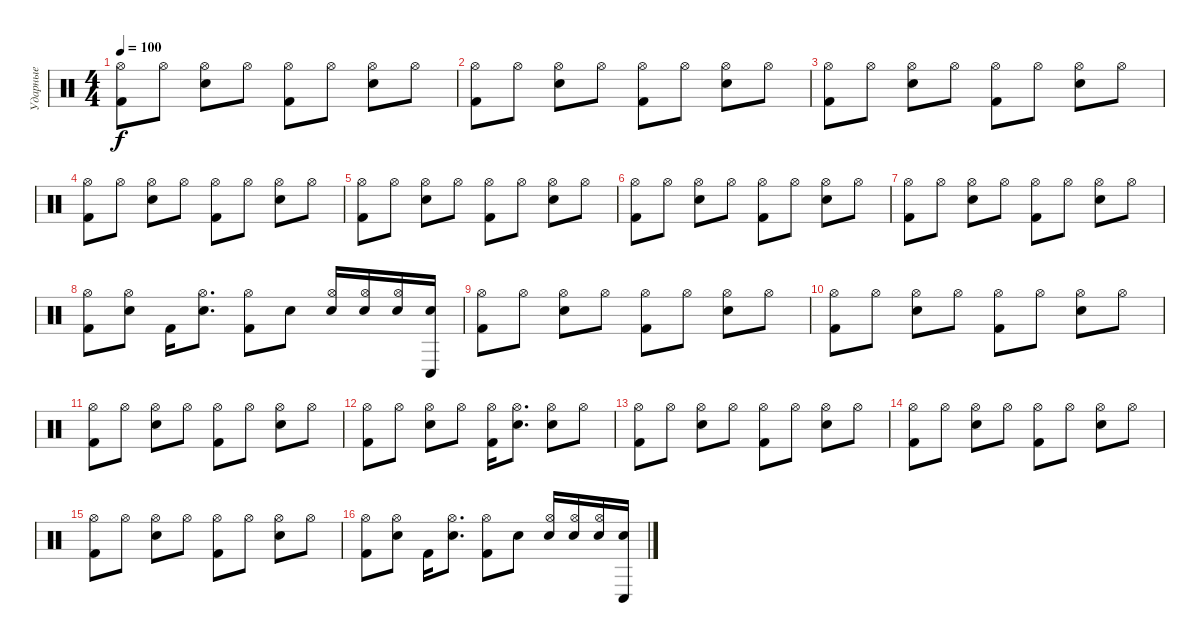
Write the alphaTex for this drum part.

\track ("Ударные" "Ударные") {instrument percussion}
\staff {score}
\articulation defaults
\ts (4 4)
\tempo 100
\clef neutral
\ks c
("Hi-Hat (open)" "Kick (hit) 2").8{dy f} "Hi-Hat (open)".8 ("Hi-Hat (open)" "Electric Snare (hit)").8 "Hi-Hat (open)".8 ("Hi-Hat (open)" "Kick (hit) 2").8 "Hi-Hat (open)".8 ("Hi-Hat (open)" "Electric Snare (hit)").8 "Hi-Hat (open)".8 |
("Hi-Hat (open)" "Kick (hit) 2").8 "Hi-Hat (open)".8 ("Hi-Hat (open)" "Electric Snare (hit)").8 "Hi-Hat (open)".8 ("Hi-Hat (open)" "Kick (hit) 2").8 "Hi-Hat (open)".8 ("Hi-Hat (open)" "Electric Snare (hit)").8 "Hi-Hat (open)".8 |
("Hi-Hat (open)" "Kick (hit) 2").8 "Hi-Hat (open)".8 ("Hi-Hat (open)" "Electric Snare (hit)").8 "Hi-Hat (open)".8 ("Hi-Hat (open)" "Kick (hit) 2").8 "Hi-Hat (open)".8 ("Hi-Hat (open)" "Electric Snare (hit)").8 "Hi-Hat (open)".8 |
("Hi-Hat (open)" "Kick (hit) 2").8 "Hi-Hat (open)".8 ("Hi-Hat (open)" "Electric Snare (hit)").8 "Hi-Hat (open)".8 ("Hi-Hat (open)" "Kick (hit) 2").8 "Hi-Hat (open)".8 ("Hi-Hat (open)" "Electric Snare (hit)").8 "Hi-Hat (open)".8 |
("Hi-Hat (open)" "Kick (hit) 2").8 "Hi-Hat (open)".8 ("Hi-Hat (open)" "Electric Snare (hit)").8 "Hi-Hat (open)".8 ("Hi-Hat (open)" "Kick (hit) 2").8 "Hi-Hat (open)".8 ("Hi-Hat (open)" "Electric Snare (hit)").8 "Hi-Hat (open)".8 |
("Hi-Hat (open)" "Kick (hit) 2").8 "Hi-Hat (open)".8 ("Hi-Hat (open)" "Electric Snare (hit)").8 "Hi-Hat (open)".8 ("Hi-Hat (open)" "Kick (hit) 2").8 "Hi-Hat (open)".8 ("Hi-Hat (open)" "Electric Snare (hit)").8 "Hi-Hat (open)".8 |
("Hi-Hat (open)" "Kick (hit) 2").8 "Hi-Hat (open)".8 ("Hi-Hat (open)" "Electric Snare (hit)").8 "Hi-Hat (open)".8 ("Hi-Hat (open)" "Kick (hit) 2").8 "Hi-Hat (open)".8 ("Hi-Hat (open)" "Electric Snare (hit)").8 "Hi-Hat (open)".8 |
("Hi-Hat (open)" "Kick (hit) 2").8 ("Hi-Hat (open)" "Electric Snare (hit)").8 "Kick (hit) 2".16 ("Hi-Hat (open)" "Electric Snare (hit)").8{d} ("Hi-Hat (open)" "Kick (hit) 2").8 "Electric Snare (hit)".8 ("Hi-Hat (open)" "Electric Snare (hit)").16 ("Hi-Hat (open)" "Electric Snare (hit)").16 ("Hi-Hat (open)" "Electric Snare (hit)").16 ("Conga low (hit)" "Electric Snare (hit)").16 |
("Hi-Hat (open)" "Kick (hit) 2").8 "Hi-Hat (open)".8 ("Hi-Hat (open)" "Electric Snare (hit)").8 "Hi-Hat (open)".8 ("Hi-Hat (open)" "Kick (hit) 2").8 "Hi-Hat (open)".8 ("Hi-Hat (open)" "Electric Snare (hit)").8 "Hi-Hat (open)".8 |
("Hi-Hat (open)" "Kick (hit) 2").8 "Hi-Hat (open)".8 ("Hi-Hat (open)" "Electric Snare (hit)").8 "Hi-Hat (open)".8 ("Hi-Hat (open)" "Kick (hit) 2").8 "Hi-Hat (open)".8 ("Hi-Hat (open)" "Electric Snare (hit)").8 "Hi-Hat (open)".8 |
("Hi-Hat (open)" "Kick (hit) 2").8 "Hi-Hat (open)".8 ("Hi-Hat (open)" "Electric Snare (hit)").8 "Hi-Hat (open)".8 ("Hi-Hat (open)" "Kick (hit) 2").8 "Hi-Hat (open)".8 ("Hi-Hat (open)" "Electric Snare (hit)").8 "Hi-Hat (open)".8 |
("Hi-Hat (open)" "Kick (hit) 2").8 "Hi-Hat (open)".8 ("Hi-Hat (open)" "Electric Snare (hit)").8 "Hi-Hat (open)".8 ("Hi-Hat (open)" "Kick (hit) 2").16 ("Hi-Hat (open)" "Electric Snare (hit)").8{d} ("Hi-Hat (open)" "Electric Snare (hit)").8 "Hi-Hat (open)".8 |
("Hi-Hat (open)" "Kick (hit) 2").8 "Hi-Hat (open)".8 ("Hi-Hat (open)" "Electric Snare (hit)").8 "Hi-Hat (open)".8 ("Hi-Hat (open)" "Kick (hit) 2").8 "Hi-Hat (open)".8 ("Hi-Hat (open)" "Electric Snare (hit)").8 "Hi-Hat (open)".8 |
("Hi-Hat (open)" "Kick (hit) 2").8 "Hi-Hat (open)".8 ("Hi-Hat (open)" "Electric Snare (hit)").8 "Hi-Hat (open)".8 ("Hi-Hat (open)" "Kick (hit) 2").8 "Hi-Hat (open)".8 ("Hi-Hat (open)" "Electric Snare (hit)").8 "Hi-Hat (open)".8 |
("Hi-Hat (open)" "Kick (hit) 2").8 "Hi-Hat (open)".8 ("Hi-Hat (open)" "Electric Snare (hit)").8 "Hi-Hat (open)".8 ("Hi-Hat (open)" "Kick (hit) 2").8 "Hi-Hat (open)".8 ("Hi-Hat (open)" "Electric Snare (hit)").8 "Hi-Hat (open)".8 |
("Hi-Hat (open)" "Kick (hit) 2").8 ("Hi-Hat (open)" "Electric Snare (hit)").8 "Kick (hit) 2".16 ("Hi-Hat (open)" "Electric Snare (hit)").8{d} ("Hi-Hat (open)" "Kick (hit) 2").8 "Electric Snare (hit)".8 ("Hi-Hat (open)" "Electric Snare (hit)").16 ("Hi-Hat (open)" "Electric Snare (hit)").16 ("Hi-Hat (open)" "Electric Snare (hit)").16 ("Conga low (hit)" "Electric Snare (hit)").16
